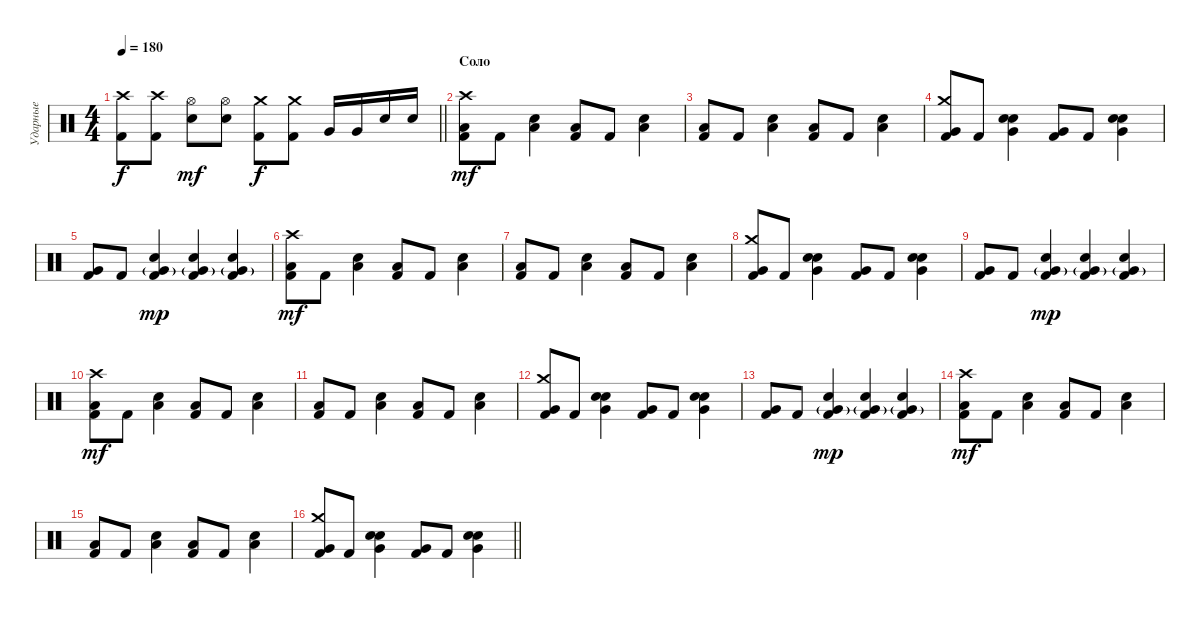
\track ("Ударные" "Ударные") {instrument percussion}
\staff {score}
\articulation defaults
\ts (4 4)
\tempo 180
\clef neutral
\barLineRight lightlight
\ks c
("Crash high (hit)" "Kick (hit) 2").8{dy f} ("Crash high (hit)" "Kick (hit) 2").8 ("Hi-Hat (open)" "Electric Snare (hit)").8{dy mf} ("Hi-Hat (open)" "Electric Snare (hit)").8 ("Crash medium (hit)" "Kick (hit) 2").8{dy f} ("Crash medium (hit)" "Kick (hit) 2").8 "Very Low Tom (hit)".16 "Very Low Tom (hit)".16 "Electric Snare (hit)".16 "Electric Snare (hit)".16 |
\section ("" "Соло")
("Crash high (hit)" "Kick (hit) 2" "Low Floor Tom (hit)").8{dy mf} "Kick (hit) 2".8 ("Electric Snare (hit)" "Low Floor Tom (hit)").4 ("Kick (hit) 2" "Low Floor Tom (hit)").8 "Kick (hit) 2".8 ("Electric Snare (hit)" "Low Floor Tom (hit)").4 |
("Kick (hit) 2" "Low Floor Tom (hit)").8 "Kick (hit) 2".8 ("Electric Snare (hit)" "Low Floor Tom (hit)").4 ("Kick (hit) 2" "Low Floor Tom (hit)").8 "Kick (hit) 2".8 ("Electric Snare (hit)" "Low Floor Tom (hit)").4 |
("Crash medium (hit)" "Kick (hit) 2" "Very Low Tom (hit)").8 "Kick (hit) 2".8 ("Electric Snare (hit)" "Snare (hit) 2" "Very Low Tom (hit)").4 ("Kick (hit) 2" "Very Low Tom (hit)").8 "Kick (hit) 2".8 ("Electric Snare (hit)" "Snare (hit) 2" "Very Low Tom (hit)").4 |
("Kick (hit) 2" "Very Low Tom (hit)").8 "Kick (hit) 2".8 ("Electric Snare (hit)" "Kick (hit) 2" "Very Low Tom (hit)"{g}).4{dy mp} ("Electric Snare (hit)" "Kick (hit) 2" "Very Low Tom (hit)"{g}).4 ("Electric Snare (hit)" "Kick (hit) 2" "Very Low Tom (hit)"{g}).4 |
("Crash high (hit)" "Kick (hit) 2" "Low Floor Tom (hit)").8{dy mf} "Kick (hit) 2".8 ("Electric Snare (hit)" "Low Floor Tom (hit)").4 ("Kick (hit) 2" "Low Floor Tom (hit)").8 "Kick (hit) 2".8 ("Electric Snare (hit)" "Low Floor Tom (hit)").4 |
("Kick (hit) 2" "Low Floor Tom (hit)").8 "Kick (hit) 2".8 ("Electric Snare (hit)" "Low Floor Tom (hit)").4 ("Kick (hit) 2" "Low Floor Tom (hit)").8 "Kick (hit) 2".8 ("Electric Snare (hit)" "Low Floor Tom (hit)").4 |
("Crash medium (hit)" "Kick (hit) 2" "Very Low Tom (hit)").8 "Kick (hit) 2".8 ("Electric Snare (hit)" "Snare (hit) 2" "Very Low Tom (hit)").4 ("Kick (hit) 2" "Very Low Tom (hit)").8 "Kick (hit) 2".8 ("Electric Snare (hit)" "Snare (hit) 2" "Very Low Tom (hit)").4 |
("Kick (hit) 2" "Very Low Tom (hit)").8 "Kick (hit) 2".8 ("Electric Snare (hit)" "Kick (hit) 2" "Very Low Tom (hit)"{g}).4{dy mp} ("Electric Snare (hit)" "Kick (hit) 2" "Very Low Tom (hit)"{g}).4 ("Electric Snare (hit)" "Kick (hit) 2" "Very Low Tom (hit)"{g}).4 |
("Crash high (hit)" "Kick (hit) 2" "Low Floor Tom (hit)").8{dy mf} "Kick (hit) 2".8 ("Electric Snare (hit)" "Low Floor Tom (hit)").4 ("Kick (hit) 2" "Low Floor Tom (hit)").8 "Kick (hit) 2".8 ("Electric Snare (hit)" "Low Floor Tom (hit)").4 |
("Kick (hit) 2" "Low Floor Tom (hit)").8 "Kick (hit) 2".8 ("Electric Snare (hit)" "Low Floor Tom (hit)").4 ("Kick (hit) 2" "Low Floor Tom (hit)").8 "Kick (hit) 2".8 ("Electric Snare (hit)" "Low Floor Tom (hit)").4 |
("Crash medium (hit)" "Kick (hit) 2" "Very Low Tom (hit)").8 "Kick (hit) 2".8 ("Electric Snare (hit)" "Snare (hit) 2" "Very Low Tom (hit)").4 ("Kick (hit) 2" "Very Low Tom (hit)").8 "Kick (hit) 2".8 ("Electric Snare (hit)" "Snare (hit) 2" "Very Low Tom (hit)").4 |
("Kick (hit) 2" "Very Low Tom (hit)").8 "Kick (hit) 2".8 ("Electric Snare (hit)" "Kick (hit) 2" "Very Low Tom (hit)"{g}).4{dy mp} ("Electric Snare (hit)" "Kick (hit) 2" "Very Low Tom (hit)"{g}).4 ("Electric Snare (hit)" "Kick (hit) 2" "Very Low Tom (hit)"{g}).4 |
("Crash high (hit)" "Kick (hit) 2" "Low Floor Tom (hit)").8{dy mf} "Kick (hit) 2".8 ("Electric Snare (hit)" "Low Floor Tom (hit)").4 ("Kick (hit) 2" "Low Floor Tom (hit)").8 "Kick (hit) 2".8 ("Electric Snare (hit)" "Low Floor Tom (hit)").4 |
("Kick (hit) 2" "Low Floor Tom (hit)").8 "Kick (hit) 2".8 ("Electric Snare (hit)" "Low Floor Tom (hit)").4 ("Kick (hit) 2" "Low Floor Tom (hit)").8 "Kick (hit) 2".8 ("Electric Snare (hit)" "Low Floor Tom (hit)").4 |
\barLineRight lightlight
("Crash medium (hit)" "Kick (hit) 2" "Very Low Tom (hit)").8 "Kick (hit) 2".8 ("Electric Snare (hit)" "Snare (hit) 2" "Very Low Tom (hit)").4 ("Kick (hit) 2" "Very Low Tom (hit)").8 "Kick (hit) 2".8 ("Electric Snare (hit)" "Snare (hit) 2" "Very Low Tom (hit)").4
